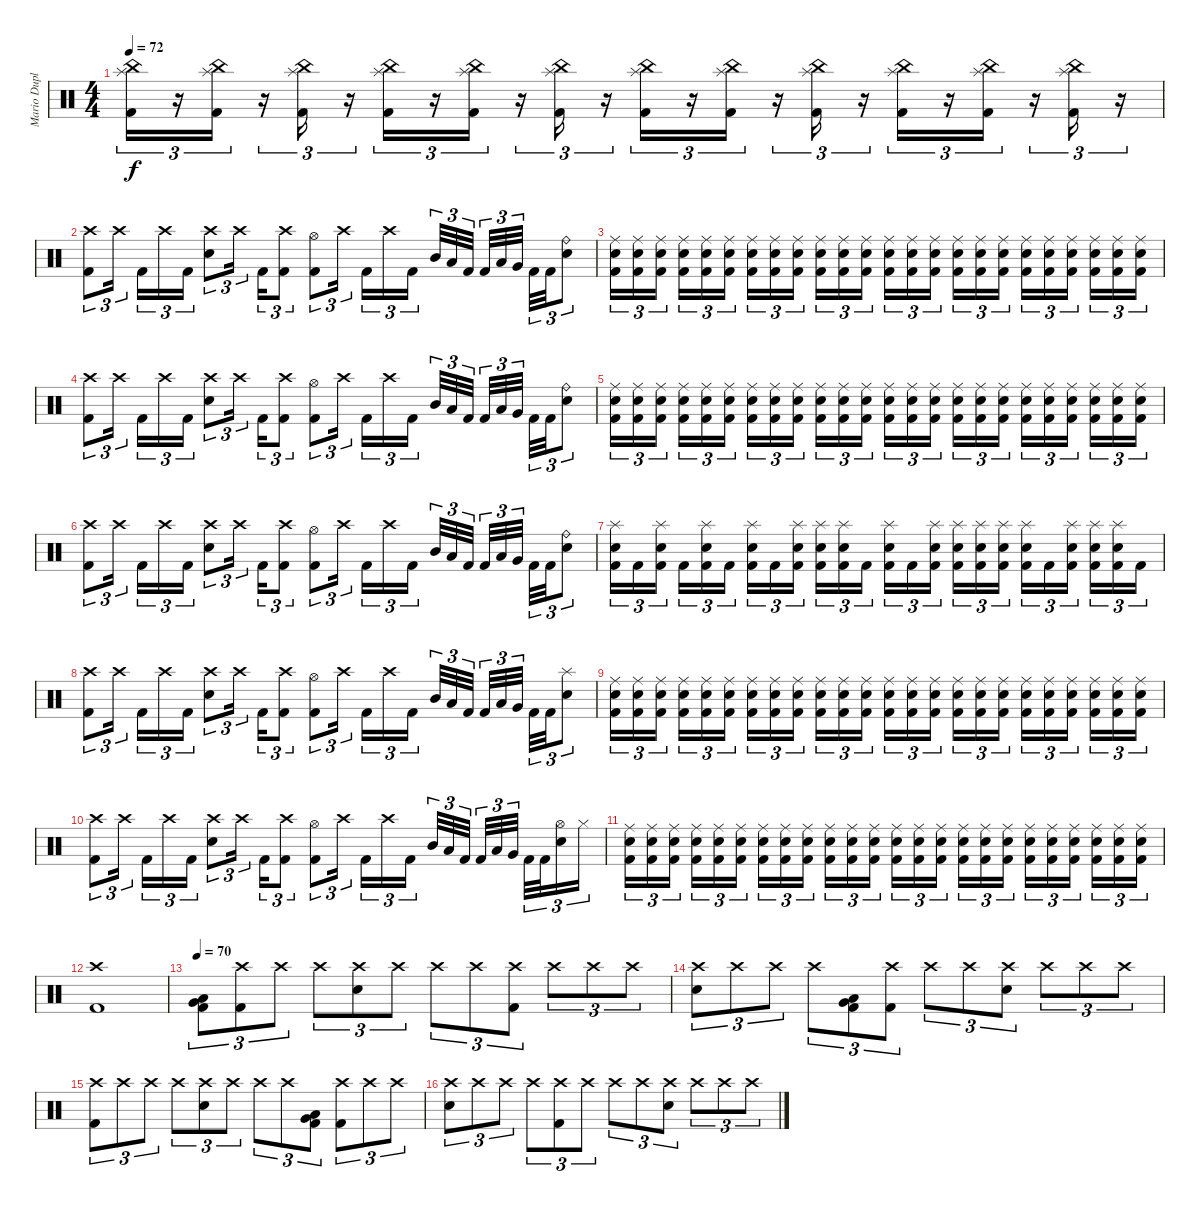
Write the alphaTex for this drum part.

\track ("Mario Duplantier " "Mario Dupl") {instrument percussion}
\staff {score}
\articulation defaults
\ts (4 4)
\tempo 72
\clef neutral
\ks c
("China (hit)" "Splash (hit)" "Kick (hit) 2").16{tu (3 2) dy f} r.16{tu (3 2)} ("China (hit)" "Splash (hit)" "Kick (hit) 2").16{tu (3 2)} r.16{tu (3 2)} ("China (hit)" "Splash (hit)" "Kick (hit) 2").16{tu (3 2)} r.16{tu (3 2)} ("China (hit)" "Splash (hit)" "Kick (hit) 2").16{tu (3 2)} r.16{tu (3 2)} ("China (hit)" "Splash (hit)" "Kick (hit) 2").16{tu (3 2)} r.16{tu (3 2)} ("Splash (hit)" "China (hit)" "Kick (hit) 2").16{tu (3 2)} r.16{tu (3 2)} ("Splash (hit)" "China (hit)" "Kick (hit) 2").16{tu (3 2)} r.16{tu (3 2)} ("Splash (hit)" "China (hit)" "Kick (hit) 2").16{tu (3 2)} r.16{tu (3 2)} ("Splash (hit)" "China (hit)" "Kick (hit) 2").16{tu (3 2)} r.16{tu (3 2)} ("China (hit)" "Splash (hit)" "Kick (hit) 2").16{tu (3 2)} r.16{tu (3 2)} ("China (hit)" "Splash (hit)" "Kick (hit) 2").16{tu (3 2)} r.16{tu (3 2)} ("Splash (hit)" "China (hit)" "Kick (hit) 2").16{tu (3 2)} r.16{tu (3 2)} |
("Kick (hit) 2" "Crash high (hit)").8{tu (3 2)} "Crash high (hit)".16{tu (3 2) beam splitsecondary} "Kick (hit) 2".16{tu (3 2)} "Crash high (hit)".16{tu (3 2)} "Kick (hit) 2".16{tu (3 2)} ("Crash high (hit)" "Electric Snare (hit)").8{tu (3 2)} "Crash high (hit)".16{tu (3 2) beam splitsecondary} "Kick (hit) 2".16{tu (3 2)} ("Crash high (hit)" "Kick (hit) 2").8{tu (3 2)} ("Hi-Hat (open)" "Kick (hit) 2").8{tu (3 2)} "Crash high (hit)".16{tu (3 2) beam splitsecondary} "Kick (hit) 2".16{tu (3 2)} "Crash high (hit)".16{tu (3 2)} "Kick (hit) 2".16{tu (3 2)} "Mid Tom (hit)".32{tu (3 2)} "Low Tom (hit)".32{tu (3 2)} "Kick (hit) 2".32{tu (3 2) beam splitsecondary} "Kick (hit) 2".32{tu (3 2)} "Low Tom (hit)".32{tu (3 2)} "Very Low Tom (hit)".32{tu (3 2) beam splitsecondary} "Kick (hit) 2".32{tu (3 2)} "Kick (hit) 2".32{tu (3 2)} ("Ride (bell)" "Electric Snare (hit)").8{tu (3 2)} |
("Kick (hit) 2" "Ride (middle)" "Electric Snare (hit)").16{tu (3 2)} ("Kick (hit) 2" "Ride (middle)" "Electric Snare (hit)").16{tu (3 2)} ("Kick (hit) 2" "Ride (middle)" "Electric Snare (hit)").16{tu (3 2) beam splitsecondary} ("Kick (hit) 2" "Ride (middle)" "Electric Snare (hit)").16{tu (3 2)} ("Kick (hit) 2" "Ride (middle)" "Electric Snare (hit)").16{tu (3 2)} ("Kick (hit) 2" "Ride (middle)" "Electric Snare (hit)").16{tu (3 2)} ("Kick (hit) 2" "Ride (middle)" "Electric Snare (hit)").16{tu (3 2)} ("Kick (hit) 2" "Ride (middle)" "Electric Snare (hit)").16{tu (3 2)} ("Kick (hit) 2" "Ride (middle)" "Electric Snare (hit)").16{tu (3 2) beam splitsecondary} ("Kick (hit) 2" "Ride (middle)" "Electric Snare (hit)").16{tu (3 2)} ("Kick (hit) 2" "Ride (middle)" "Electric Snare (hit)").16{tu (3 2)} ("Kick (hit) 2" "Ride (middle)" "Electric Snare (hit)").16{tu (3 2)} ("Kick (hit) 2" "Ride (middle)" "Electric Snare (hit)").16{tu (3 2)} ("Kick (hit) 2" "Ride (middle)" "Electric Snare (hit)").16{tu (3 2)} ("Kick (hit) 2" "Ride (middle)" "Electric Snare (hit)").16{tu (3 2) beam splitsecondary} ("Kick (hit) 2" "Ride (middle)" "Electric Snare (hit)").16{tu (3 2)} ("Kick (hit) 2" "Ride (middle)" "Electric Snare (hit)").16{tu (3 2)} ("Kick (hit) 2" "Ride (middle)" "Electric Snare (hit)").16{tu (3 2)} ("Electric Snare (hit)" "Ride (middle)" "Kick (hit) 2").16{tu (3 2)} ("Electric Snare (hit)" "Ride (middle)" "Kick (hit) 2").16{tu (3 2)} ("Electric Snare (hit)" "Ride (middle)" "Kick (hit) 2").16{tu (3 2) beam splitsecondary} ("Electric Snare (hit)" "Ride (middle)" "Kick (hit) 2").16{tu (3 2)} ("Electric Snare (hit)" "Ride (middle)" "Kick (hit) 2").16{tu (3 2)} ("Electric Snare (hit)" "Ride (middle)" "Kick (hit) 2").16{tu (3 2)} |
("Kick (hit) 2" "Crash high (hit)").8{tu (3 2)} "Crash high (hit)".16{tu (3 2) beam splitsecondary} "Kick (hit) 2".16{tu (3 2)} "Crash high (hit)".16{tu (3 2)} "Kick (hit) 2".16{tu (3 2)} ("Crash high (hit)" "Electric Snare (hit)").8{tu (3 2)} "Crash high (hit)".16{tu (3 2) beam splitsecondary} "Kick (hit) 2".16{tu (3 2)} ("Crash high (hit)" "Kick (hit) 2").8{tu (3 2)} ("Hi-Hat (open)" "Kick (hit) 2").8{tu (3 2)} "Crash high (hit)".16{tu (3 2) beam splitsecondary} "Kick (hit) 2".16{tu (3 2)} "Crash high (hit)".16{tu (3 2)} "Kick (hit) 2".16{tu (3 2)} "Mid Tom (hit)".32{tu (3 2)} "Low Tom (hit)".32{tu (3 2)} "Kick (hit) 2".32{tu (3 2) beam splitsecondary} "Kick (hit) 2".32{tu (3 2)} "Low Tom (hit)".32{tu (3 2)} "Very Low Tom (hit)".32{tu (3 2) beam splitsecondary} "Kick (hit) 2".32{tu (3 2)} "Kick (hit) 2".32{tu (3 2)} ("Ride (bell)" "Electric Snare (hit)").8{tu (3 2)} |
("Kick (hit) 2" "Ride (middle)" "Electric Snare (hit)").16{tu (3 2)} ("Kick (hit) 2" "Ride (middle)" "Electric Snare (hit)").16{tu (3 2)} ("Kick (hit) 2" "Ride (middle)" "Electric Snare (hit)").16{tu (3 2) beam splitsecondary} ("Kick (hit) 2" "Ride (middle)" "Electric Snare (hit)").16{tu (3 2)} ("Kick (hit) 2" "Ride (middle)" "Electric Snare (hit)").16{tu (3 2)} ("Kick (hit) 2" "Ride (middle)" "Electric Snare (hit)").16{tu (3 2)} ("Kick (hit) 2" "Ride (middle)" "Electric Snare (hit)").16{tu (3 2)} ("Kick (hit) 2" "Ride (middle)" "Electric Snare (hit)").16{tu (3 2)} ("Kick (hit) 2" "Ride (middle)" "Electric Snare (hit)").16{tu (3 2) beam splitsecondary} ("Kick (hit) 2" "Ride (middle)" "Electric Snare (hit)").16{tu (3 2)} ("Kick (hit) 2" "Ride (middle)" "Electric Snare (hit)").16{tu (3 2)} ("Kick (hit) 2" "Ride (middle)" "Electric Snare (hit)").16{tu (3 2)} ("Kick (hit) 2" "Ride (middle)" "Electric Snare (hit)").16{tu (3 2)} ("Kick (hit) 2" "Ride (middle)" "Electric Snare (hit)").16{tu (3 2)} ("Kick (hit) 2" "Ride (middle)" "Electric Snare (hit)").16{tu (3 2) beam splitsecondary} ("Kick (hit) 2" "Ride (middle)" "Electric Snare (hit)").16{tu (3 2)} ("Kick (hit) 2" "Ride (middle)" "Electric Snare (hit)").16{tu (3 2)} ("Kick (hit) 2" "Ride (middle)" "Electric Snare (hit)").16{tu (3 2)} ("Electric Snare (hit)" "Ride (middle)" "Kick (hit) 2").16{tu (3 2)} ("Electric Snare (hit)" "Ride (middle)" "Kick (hit) 2").16{tu (3 2)} ("Electric Snare (hit)" "Ride (middle)" "Kick (hit) 2").16{tu (3 2) beam splitsecondary} ("Electric Snare (hit)" "Ride (middle)" "Kick (hit) 2").16{tu (3 2)} ("Electric Snare (hit)" "Ride (middle)" "Kick (hit) 2").16{tu (3 2)} ("Electric Snare (hit)" "Ride (middle)" "Kick (hit) 2").16{tu (3 2)} |
("Kick (hit) 2" "Crash high (hit)").8{tu (3 2)} "Crash high (hit)".16{tu (3 2) beam splitsecondary} "Kick (hit) 2".16{tu (3 2)} "Crash high (hit)".16{tu (3 2)} "Kick (hit) 2".16{tu (3 2)} ("Crash high (hit)" "Electric Snare (hit)").8{tu (3 2)} "Crash high (hit)".16{tu (3 2) beam splitsecondary} "Kick (hit) 2".16{tu (3 2)} ("Crash high (hit)" "Kick (hit) 2").8{tu (3 2)} ("Hi-Hat (open)" "Kick (hit) 2").8{tu (3 2)} "Crash high (hit)".16{tu (3 2) beam splitsecondary} "Kick (hit) 2".16{tu (3 2)} "Crash high (hit)".16{tu (3 2)} "Kick (hit) 2".16{tu (3 2)} "Mid Tom (hit)".32{tu (3 2)} "Low Tom (hit)".32{tu (3 2)} "Kick (hit) 2".32{tu (3 2) beam splitsecondary} "Kick (hit) 2".32{tu (3 2)} "Low Tom (hit)".32{tu (3 2)} "Very Low Tom (hit)".32{tu (3 2) beam splitsecondary} "Kick (hit) 2".32{tu (3 2)} "Kick (hit) 2".32{tu (3 2)} ("Ride (bell)" "Electric Snare (hit)").8{tu (3 2)} |
("Splash (hit)" "Electric Snare (hit)" "Kick (hit) 2").16{tu (3 2)} "Kick (hit) 2".16{tu (3 2)} ("Splash (hit)" "Electric Snare (hit)" "Kick (hit) 2").16{tu (3 2) beam splitsecondary} "Kick (hit) 2".16{tu (3 2)} ("Splash (hit)" "Electric Snare (hit)" "Kick (hit) 2").16{tu (3 2)} "Kick (hit) 2".16{tu (3 2)} ("Splash (hit)" "Electric Snare (hit)" "Kick (hit) 2").16{tu (3 2)} "Kick (hit) 2".16{tu (3 2)} ("Splash (hit)" "Electric Snare (hit)" "Kick (hit) 2").16{tu (3 2) beam splitsecondary} ("Splash (hit)" "Electric Snare (hit)" "Kick (hit) 2").16{tu (3 2)} ("Splash (hit)" "Electric Snare (hit)" "Kick (hit) 2").16{tu (3 2)} "Kick (hit) 2".16{tu (3 2)} ("Splash (hit)" "Electric Snare (hit)" "Kick (hit) 2").16{tu (3 2)} "Kick (hit) 2".16{tu (3 2)} ("Splash (hit)" "Electric Snare (hit)" "Kick (hit) 2").16{tu (3 2) beam splitsecondary} ("Splash (hit)" "Electric Snare (hit)" "Kick (hit) 2").16{tu (3 2)} ("Splash (hit)" "Electric Snare (hit)" "Kick (hit) 2").16{tu (3 2)} ("Splash (hit)" "Electric Snare (hit)" "Kick (hit) 2").16{tu (3 2)} ("Splash (hit)" "Electric Snare (hit)" "Kick (hit) 2").16{tu (3 2)} "Kick (hit) 2".16{tu (3 2)} ("Splash (hit)" "Electric Snare (hit)" "Kick (hit) 2").16{tu (3 2) beam splitsecondary} ("Splash (hit)" "Electric Snare (hit)" "Kick (hit) 2").16{tu (3 2)} ("Splash (hit)" "Electric Snare (hit)" "Kick (hit) 2").16{tu (3 2)} "Kick (hit) 2".16{tu (3 2)} |
("Kick (hit) 2" "Crash high (hit)").8{tu (3 2)} "Crash high (hit)".16{tu (3 2) beam splitsecondary} "Kick (hit) 2".16{tu (3 2)} "Crash high (hit)".16{tu (3 2)} "Kick (hit) 2".16{tu (3 2)} ("Crash high (hit)" "Electric Snare (hit)").8{tu (3 2)} "Crash high (hit)".16{tu (3 2) beam splitsecondary} "Kick (hit) 2".16{tu (3 2)} ("Crash high (hit)" "Kick (hit) 2").8{tu (3 2)} ("Hi-Hat (open)" "Kick (hit) 2").8{tu (3 2)} "Crash high (hit)".16{tu (3 2) beam splitsecondary} "Kick (hit) 2".16{tu (3 2)} "Crash high (hit)".16{tu (3 2)} "Kick (hit) 2".16{tu (3 2)} "Mid Tom (hit)".32{tu (3 2)} "Low Tom (hit)".32{tu (3 2)} "Kick (hit) 2".32{tu (3 2) beam splitsecondary} "Kick (hit) 2".32{tu (3 2)} "Low Tom (hit)".32{tu (3 2)} "Very Low Tom (hit)".32{tu (3 2) beam splitsecondary} "Kick (hit) 2".32{tu (3 2)} "Kick (hit) 2".32{tu (3 2)} ("Splash (hit)" "Electric Snare (hit)").8{tu (3 2)} |
("Kick (hit) 2" "Ride (middle)" "Electric Snare (hit)").16{tu (3 2)} ("Kick (hit) 2" "Ride (middle)" "Electric Snare (hit)").16{tu (3 2)} ("Kick (hit) 2" "Ride (middle)" "Electric Snare (hit)").16{tu (3 2) beam splitsecondary} ("Kick (hit) 2" "Ride (middle)" "Electric Snare (hit)").16{tu (3 2)} ("Kick (hit) 2" "Ride (middle)" "Electric Snare (hit)").16{tu (3 2)} ("Kick (hit) 2" "Ride (middle)" "Electric Snare (hit)").16{tu (3 2)} ("Kick (hit) 2" "Ride (middle)" "Electric Snare (hit)").16{tu (3 2)} ("Kick (hit) 2" "Ride (middle)" "Electric Snare (hit)").16{tu (3 2)} ("Kick (hit) 2" "Ride (middle)" "Electric Snare (hit)").16{tu (3 2) beam splitsecondary} ("Kick (hit) 2" "Ride (middle)" "Electric Snare (hit)").16{tu (3 2)} ("Kick (hit) 2" "Ride (middle)" "Electric Snare (hit)").16{tu (3 2)} ("Kick (hit) 2" "Ride (middle)" "Electric Snare (hit)").16{tu (3 2)} ("Kick (hit) 2" "Ride (middle)" "Electric Snare (hit)").16{tu (3 2)} ("Kick (hit) 2" "Ride (middle)" "Electric Snare (hit)").16{tu (3 2)} ("Kick (hit) 2" "Ride (middle)" "Electric Snare (hit)").16{tu (3 2) beam splitsecondary} ("Kick (hit) 2" "Ride (middle)" "Electric Snare (hit)").16{tu (3 2)} ("Kick (hit) 2" "Ride (middle)" "Electric Snare (hit)").16{tu (3 2)} ("Kick (hit) 2" "Ride (middle)" "Electric Snare (hit)").16{tu (3 2)} ("Electric Snare (hit)" "Ride (middle)" "Kick (hit) 2").16{tu (3 2)} ("Electric Snare (hit)" "Ride (middle)" "Kick (hit) 2").16{tu (3 2)} ("Electric Snare (hit)" "Ride (middle)" "Kick (hit) 2").16{tu (3 2) beam splitsecondary} ("Electric Snare (hit)" "Ride (middle)" "Kick (hit) 2").16{tu (3 2)} ("Electric Snare (hit)" "Ride (middle)" "Kick (hit) 2").16{tu (3 2)} ("Electric Snare (hit)" "Ride (middle)" "Kick (hit) 2").16{tu (3 2)} |
("Kick (hit) 2" "Crash high (hit)").8{tu (3 2)} "Crash high (hit)".16{tu (3 2) beam splitsecondary} "Kick (hit) 2".16{tu (3 2)} "Crash high (hit)".16{tu (3 2)} "Kick (hit) 2".16{tu (3 2)} ("Crash high (hit)" "Electric Snare (hit)").8{tu (3 2)} "Crash high (hit)".16{tu (3 2) beam splitsecondary} "Kick (hit) 2".16{tu (3 2)} ("Crash high (hit)" "Kick (hit) 2").8{tu (3 2)} ("Hi-Hat (open)" "Kick (hit) 2").8{tu (3 2)} "Crash high (hit)".16{tu (3 2) beam splitsecondary} "Kick (hit) 2".16{tu (3 2)} "Crash high (hit)".16{tu (3 2)} "Kick (hit) 2".16{tu (3 2)} "Mid Tom (hit)".32{tu (3 2)} "Low Tom (hit)".32{tu (3 2)} "Kick (hit) 2".32{tu (3 2) beam splitsecondary} "Kick (hit) 2".32{tu (3 2)} "Low Tom (hit)".32{tu (3 2)} "Very Low Tom (hit)".32{tu (3 2) beam splitsecondary} "Kick (hit) 2".32{tu (3 2)} "Kick (hit) 2".32{tu (3 2)} ("Hi-Hat (open)" "Electric Snare (hit)").16{tu (3 2)} "Hi-Hat (closed)".16{tu (3 2)} |
("Kick (hit) 2" "Ride (middle)" "Electric Snare (hit)").16{tu (3 2)} ("Kick (hit) 2" "Ride (middle)" "Electric Snare (hit)").16{tu (3 2)} ("Kick (hit) 2" "Ride (middle)" "Electric Snare (hit)").16{tu (3 2) beam splitsecondary} ("Kick (hit) 2" "Ride (middle)" "Electric Snare (hit)").16{tu (3 2)} ("Kick (hit) 2" "Ride (middle)" "Electric Snare (hit)").16{tu (3 2)} ("Kick (hit) 2" "Ride (middle)" "Electric Snare (hit)").16{tu (3 2)} ("Kick (hit) 2" "Ride (middle)" "Electric Snare (hit)").16{tu (3 2)} ("Kick (hit) 2" "Ride (middle)" "Electric Snare (hit)").16{tu (3 2)} ("Kick (hit) 2" "Ride (middle)" "Electric Snare (hit)").16{tu (3 2) beam splitsecondary} ("Kick (hit) 2" "Ride (middle)" "Electric Snare (hit)").16{tu (3 2)} ("Kick (hit) 2" "Ride (middle)" "Electric Snare (hit)").16{tu (3 2)} ("Kick (hit) 2" "Ride (middle)" "Electric Snare (hit)").16{tu (3 2)} ("Kick (hit) 2" "Ride (middle)" "Electric Snare (hit)").16{tu (3 2)} ("Kick (hit) 2" "Ride (middle)" "Electric Snare (hit)").16{tu (3 2)} ("Kick (hit) 2" "Ride (middle)" "Electric Snare (hit)").16{tu (3 2) beam splitsecondary} ("Kick (hit) 2" "Ride (middle)" "Electric Snare (hit)").16{tu (3 2)} ("Kick (hit) 2" "Ride (middle)" "Electric Snare (hit)").16{tu (3 2)} ("Kick (hit) 2" "Ride (middle)" "Electric Snare (hit)").16{tu (3 2)} ("Electric Snare (hit)" "Ride (middle)" "Kick (hit) 2").16{tu (3 2)} ("Electric Snare (hit)" "Ride (middle)" "Kick (hit) 2").16{tu (3 2)} ("Electric Snare (hit)" "Ride (middle)" "Kick (hit) 2").16{tu (3 2) beam splitsecondary} ("Electric Snare (hit)" "Ride (middle)" "Kick (hit) 2").16{tu (3 2)} ("Electric Snare (hit)" "Ride (middle)" "Kick (hit) 2").16{tu (3 2)} ("Electric Snare (hit)" "Ride (middle)" "Kick (hit) 2").16{tu (3 2)} |
("Crash high (hit)" "Kick (hit) 2").1 |
\tempo 70
("Kick (hit) 2" "Very Low Tom (hit)" "Low Tom (hit)").8{tu (3 2)} ("Crash high (hit)" "Kick (hit) 2").8{tu (3 2)} "Crash high (hit)".8{tu (3 2)} "Crash high (hit)".8{tu (3 2)} ("Crash high (hit)" "Electric Snare (hit)").8{tu (3 2)} "Crash high (hit)".8{tu (3 2)} "Crash high (hit)".8{tu (3 2)} "Crash high (hit)".8{tu (3 2)} ("Crash high (hit)" "Kick (hit) 2").8{tu (3 2)} "Crash high (hit)".8{tu (3 2)} "Crash high (hit)".8{tu (3 2)} "Crash high (hit)".8{tu (3 2)} |
("Crash high (hit)" "Electric Snare (hit)").8{tu (3 2)} "Crash high (hit)".8{tu (3 2)} "Crash high (hit)".8{tu (3 2)} "Crash high (hit)".8{tu (3 2)} ("Kick (hit) 2" "Very Low Tom (hit)" "Low Tom (hit)").8{tu (3 2)} ("Crash high (hit)" "Kick (hit) 2").8{tu (3 2)} "Crash high (hit)".8{tu (3 2)} "Crash high (hit)".8{tu (3 2)} ("Crash high (hit)" "Electric Snare (hit)").8{tu (3 2)} "Crash high (hit)".8{tu (3 2)} "Crash high (hit)".8{tu (3 2)} "Crash high (hit)".8{tu (3 2)} |
("Crash high (hit)" "Kick (hit) 2").8{tu (3 2)} "Crash high (hit)".8{tu (3 2)} "Crash high (hit)".8{tu (3 2)} "Crash high (hit)".8{tu (3 2)} ("Crash high (hit)" "Electric Snare (hit)").8{tu (3 2)} "Crash high (hit)".8{tu (3 2)} "Crash high (hit)".8{tu (3 2)} "Crash high (hit)".8{tu (3 2)} ("Kick (hit) 2" "Low Tom (hit)" "Very Low Tom (hit)").8{tu (3 2)} ("Crash high (hit)" "Kick (hit) 2").8{tu (3 2)} "Crash high (hit)".8{tu (3 2)} "Crash high (hit)".8{tu (3 2)} |
("Crash high (hit)" "Electric Snare (hit)").8{tu (3 2)} "Crash high (hit)".8{tu (3 2)} "Crash high (hit)".8{tu (3 2)} "Crash high (hit)".8{tu (3 2)} ("Crash high (hit)" "Kick (hit) 2").8{tu (3 2)} "Crash high (hit)".8{tu (3 2)} "Crash high (hit)".8{tu (3 2)} "Crash high (hit)".8{tu (3 2)} ("Crash high (hit)" "Electric Snare (hit)").8{tu (3 2)} "Crash high (hit)".8{tu (3 2)} "Crash high (hit)".8{tu (3 2)} "Crash high (hit)".8{tu (3 2)}
